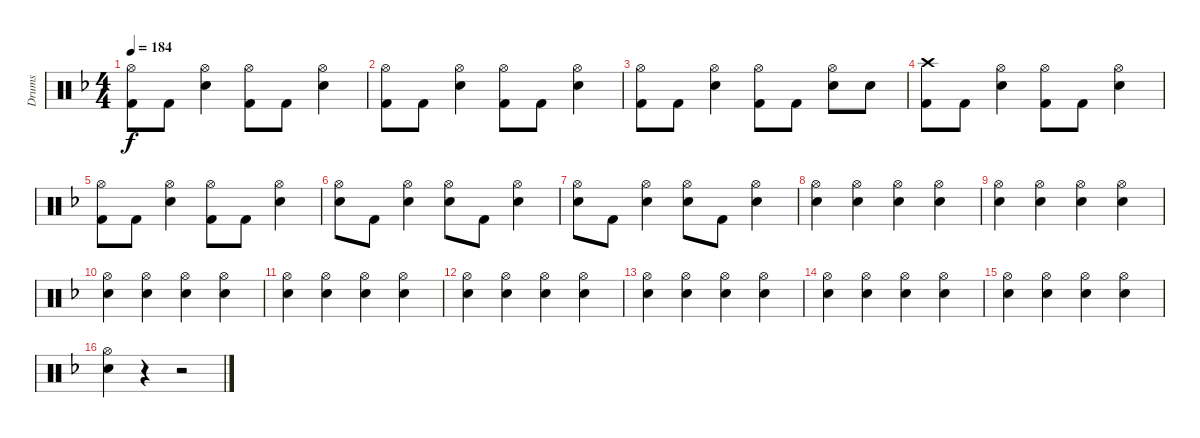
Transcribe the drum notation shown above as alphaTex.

\track ("Drums" "Drums") {instrument percussion}
\staff {score}
\articulation defaults
\ts (4 4)
\tempo 184
\clef neutral
\ks f
("Hi-Hat (open)" "Kick (hit) 2").8{dy f} "Kick (hit) 2".8 ("Electric Snare (hit)" "Hi-Hat (open)").4 ("Hi-Hat (open)" "Kick (hit) 2").8 "Kick (hit) 2".8 ("Electric Snare (hit)" "Hi-Hat (open)").4 |
("Hi-Hat (open)" "Kick (hit) 2").8 "Kick (hit) 2".8 ("Electric Snare (hit)" "Hi-Hat (open)").4 ("Hi-Hat (open)" "Kick (hit) 2").8 "Kick (hit) 2".8 ("Electric Snare (hit)" "Hi-Hat (open)").4 |
("Hi-Hat (open)" "Kick (hit) 2").8 "Kick (hit) 2".8 ("Electric Snare (hit)" "Hi-Hat (open)").4 ("Hi-Hat (open)" "Kick (hit) 2").8 "Kick (hit) 2".8 ("Electric Snare (hit)" "Hi-Hat (open)").8 "Electric Snare (hit)".8 |
("Crash high (hit)" "Kick (hit) 2").8 "Kick (hit) 2".8 ("Electric Snare (hit)" "Hi-Hat (open)").4 ("Hi-Hat (open)" "Kick (hit) 2").8 "Kick (hit) 2".8 ("Electric Snare (hit)" "Hi-Hat (open)").4 |
("Hi-Hat (open)" "Kick (hit) 2").8 "Kick (hit) 2".8 ("Electric Snare (hit)" "Hi-Hat (open)").4 ("Hi-Hat (open)" "Kick (hit) 2").8 "Kick (hit) 2".8 ("Electric Snare (hit)" "Hi-Hat (open)").4 |
("Electric Snare (hit)" "Hi-Hat (open)").8 "Kick (hit) 2".8 ("Electric Snare (hit)" "Hi-Hat (open)").4 ("Electric Snare (hit)" "Hi-Hat (open)").8 "Kick (hit) 2".8 ("Electric Snare (hit)" "Hi-Hat (open)").4 |
("Electric Snare (hit)" "Hi-Hat (open)").8 "Kick (hit) 2".8 ("Electric Snare (hit)" "Hi-Hat (open)").4 ("Electric Snare (hit)" "Hi-Hat (open)").8 "Kick (hit) 2".8 ("Electric Snare (hit)" "Hi-Hat (open)").4 |
("Electric Snare (hit)" "Hi-Hat (open)").4 ("Electric Snare (hit)" "Hi-Hat (open)").4 ("Electric Snare (hit)" "Hi-Hat (open)").4 ("Electric Snare (hit)" "Hi-Hat (open)").4 |
("Electric Snare (hit)" "Hi-Hat (open)").4 ("Electric Snare (hit)" "Hi-Hat (open)").4 ("Electric Snare (hit)" "Hi-Hat (open)").4 ("Electric Snare (hit)" "Hi-Hat (open)").4 |
("Electric Snare (hit)" "Hi-Hat (open)").4 ("Electric Snare (hit)" "Hi-Hat (open)").4 ("Electric Snare (hit)" "Hi-Hat (open)").4 ("Electric Snare (hit)" "Hi-Hat (open)").4 |
("Electric Snare (hit)" "Hi-Hat (open)").4 ("Electric Snare (hit)" "Hi-Hat (open)").4 ("Electric Snare (hit)" "Hi-Hat (open)").4 ("Electric Snare (hit)" "Hi-Hat (open)").4 |
("Electric Snare (hit)" "Hi-Hat (open)").4 ("Electric Snare (hit)" "Hi-Hat (open)").4 ("Electric Snare (hit)" "Hi-Hat (open)").4 ("Electric Snare (hit)" "Hi-Hat (open)").4 |
("Electric Snare (hit)" "Hi-Hat (open)").4 ("Electric Snare (hit)" "Hi-Hat (open)").4 ("Electric Snare (hit)" "Hi-Hat (open)").4 ("Electric Snare (hit)" "Hi-Hat (open)").4 |
("Electric Snare (hit)" "Hi-Hat (open)").4 ("Electric Snare (hit)" "Hi-Hat (open)").4 ("Electric Snare (hit)" "Hi-Hat (open)").4 ("Electric Snare (hit)" "Hi-Hat (open)").4 |
("Electric Snare (hit)" "Hi-Hat (open)").4 ("Electric Snare (hit)" "Hi-Hat (open)").4 ("Electric Snare (hit)" "Hi-Hat (open)").4 ("Electric Snare (hit)" "Hi-Hat (open)").4 |
("Electric Snare (hit)" "Hi-Hat (open)").4 r.4 r.2
